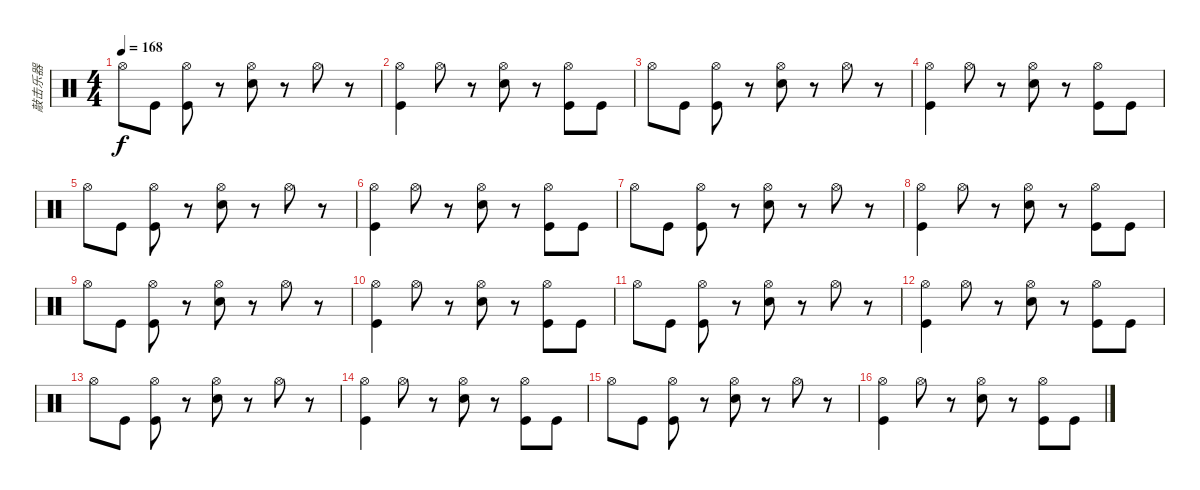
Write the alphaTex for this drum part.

\track ("敲击乐器" "敲击乐器") {instrument percussion}
\staff {score}
\articulation defaults
\ts (4 4)
\tempo 168
\clef neutral
\ks c "Hi-Hat (open)".8{dy f} "Kick (hit)".8
("Hi-Hat (open)" "Kick (hit)").8 r.8 ("Hi-Hat (open)" "Snare (hit) 2").8 r.8 "Hi-Hat (open)".8 r.8 |
("Hi-Hat (open)" "Kick (hit)").4 "Hi-Hat (open)".8 r.8 ("Hi-Hat (open)" "Snare (hit) 2").8 r.8 ("Hi-Hat (open)" "Kick (hit)").8 "Kick (hit)".8 |
"Hi-Hat (open)".8 "Kick (hit)".8 ("Hi-Hat (open)" "Kick (hit)").8 r.8 ("Hi-Hat (open)" "Snare (hit) 2").8 r.8 "Hi-Hat (open)".8 r.8 |
("Hi-Hat (open)" "Kick (hit)").4 "Hi-Hat (open)".8 r.8 ("Hi-Hat (open)" "Snare (hit) 2").8 r.8 ("Hi-Hat (open)" "Kick (hit)").8 "Kick (hit)".8 |
"Hi-Hat (open)".8 "Kick (hit)".8 ("Hi-Hat (open)" "Kick (hit)").8 r.8 ("Hi-Hat (open)" "Snare (hit) 2").8 r.8 "Hi-Hat (open)".8 r.8 |
("Hi-Hat (open)" "Kick (hit)").4 "Hi-Hat (open)".8 r.8 ("Hi-Hat (open)" "Snare (hit) 2").8 r.8 ("Hi-Hat (open)" "Kick (hit)").8 "Kick (hit)".8 |
"Hi-Hat (open)".8 "Kick (hit)".8 ("Hi-Hat (open)" "Kick (hit)").8 r.8 ("Hi-Hat (open)" "Snare (hit) 2").8 r.8 "Hi-Hat (open)".8 r.8 |
("Hi-Hat (open)" "Kick (hit)").4 "Hi-Hat (open)".8 r.8 ("Hi-Hat (open)" "Snare (hit) 2").8 r.8 ("Hi-Hat (open)" "Kick (hit)").8 "Kick (hit)".8 |
"Hi-Hat (open)".8 "Kick (hit)".8 ("Hi-Hat (open)" "Kick (hit)").8 r.8 ("Hi-Hat (open)" "Snare (hit) 2").8 r.8 "Hi-Hat (open)".8 r.8 |
("Hi-Hat (open)" "Kick (hit)").4 "Hi-Hat (open)".8 r.8 ("Hi-Hat (open)" "Snare (hit) 2").8 r.8 ("Hi-Hat (open)" "Kick (hit)").8 "Kick (hit)".8 |
"Hi-Hat (open)".8 "Kick (hit)".8 ("Hi-Hat (open)" "Kick (hit)").8 r.8 ("Hi-Hat (open)" "Snare (hit) 2").8 r.8 "Hi-Hat (open)".8 r.8 |
("Hi-Hat (open)" "Kick (hit)").4 "Hi-Hat (open)".8 r.8 ("Hi-Hat (open)" "Snare (hit) 2").8 r.8 ("Hi-Hat (open)" "Kick (hit)").8 "Kick (hit)".8 |
"Hi-Hat (open)".8 "Kick (hit)".8 ("Hi-Hat (open)" "Kick (hit)").8 r.8 ("Hi-Hat (open)" "Snare (hit) 2").8 r.8 "Hi-Hat (open)".8 r.8 |
("Hi-Hat (open)" "Kick (hit)").4 "Hi-Hat (open)".8 r.8 ("Hi-Hat (open)" "Snare (hit) 2").8 r.8 ("Hi-Hat (open)" "Kick (hit)").8 "Kick (hit)".8 |
"Hi-Hat (open)".8 "Kick (hit)".8 ("Hi-Hat (open)" "Kick (hit)").8 r.8 ("Hi-Hat (open)" "Snare (hit) 2").8 r.8 "Hi-Hat (open)".8 r.8 |
("Hi-Hat (open)" "Kick (hit)").4 "Hi-Hat (open)".8 r.8 ("Hi-Hat (open)" "Snare (hit) 2").8 r.8 ("Hi-Hat (open)" "Kick (hit)").8 "Kick (hit)".8
